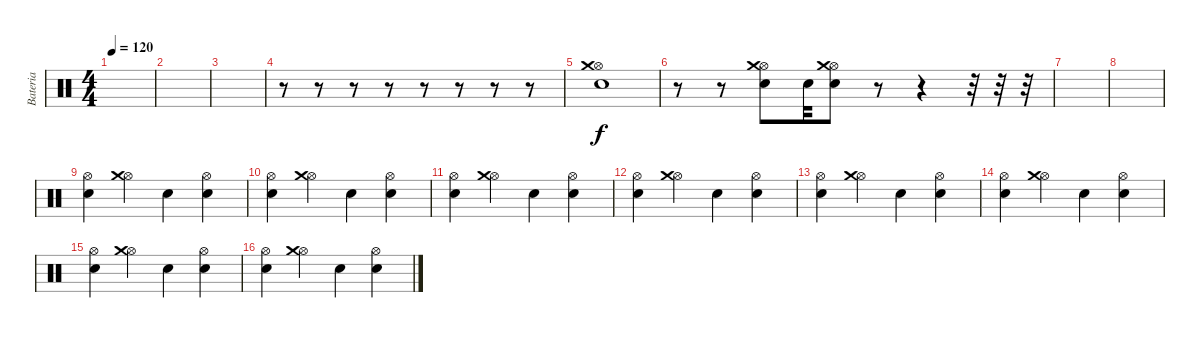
\track ("Bateria" "Bateria") {instrument percussion}
\staff {score}
\articulation defaults
\ts (4 4)
\tempo 120
\clef neutral
\ks c
|
|
|
r.8 r.8 r.8 r.8 r.8 r.8 r.8 r.8 |
("Electric Snare (hit)" "Hi-Hat (open)" "Crash medium (hit)").1 |
r.8 r.8 ("Electric Snare (hit)" "Hi-Hat (open)" "Crash medium (hit)").8 "Electric Snare (hit)".32 ("Electric Snare (hit)" "Hi-Hat (open)" "Crash medium (hit)").8 r.8 r.4 r.32 r.32 r.32 |
|
|
("Electric Snare (hit)" "Hi-Hat (open)").4 ("Hi-Hat (open)" "Crash medium (hit)").4 "Electric Snare (hit)".4 ("Electric Snare (hit)" "Hi-Hat (open)").4 |
("Electric Snare (hit)" "Hi-Hat (open)").4 ("Hi-Hat (open)" "Crash medium (hit)").4 "Electric Snare (hit)".4 ("Electric Snare (hit)" "Hi-Hat (open)").4 |
("Electric Snare (hit)" "Hi-Hat (open)").4 ("Hi-Hat (open)" "Crash medium (hit)").4 "Electric Snare (hit)".4 ("Electric Snare (hit)" "Hi-Hat (open)").4 |
("Electric Snare (hit)" "Hi-Hat (open)").4 ("Hi-Hat (open)" "Crash medium (hit)").4 "Electric Snare (hit)".4 ("Electric Snare (hit)" "Hi-Hat (open)").4 |
("Electric Snare (hit)" "Hi-Hat (open)").4 ("Hi-Hat (open)" "Crash medium (hit)").4 "Electric Snare (hit)".4 ("Electric Snare (hit)" "Hi-Hat (open)").4 |
("Electric Snare (hit)" "Hi-Hat (open)").4 ("Hi-Hat (open)" "Crash medium (hit)").4 "Electric Snare (hit)".4 ("Electric Snare (hit)" "Hi-Hat (open)").4 |
("Electric Snare (hit)" "Hi-Hat (open)").4 ("Hi-Hat (open)" "Crash medium (hit)").4 "Electric Snare (hit)".4 ("Electric Snare (hit)" "Hi-Hat (open)").4 |
("Electric Snare (hit)" "Hi-Hat (open)").4 ("Hi-Hat (open)" "Crash medium (hit)").4 "Electric Snare (hit)".4 ("Electric Snare (hit)" "Hi-Hat (open)").4
